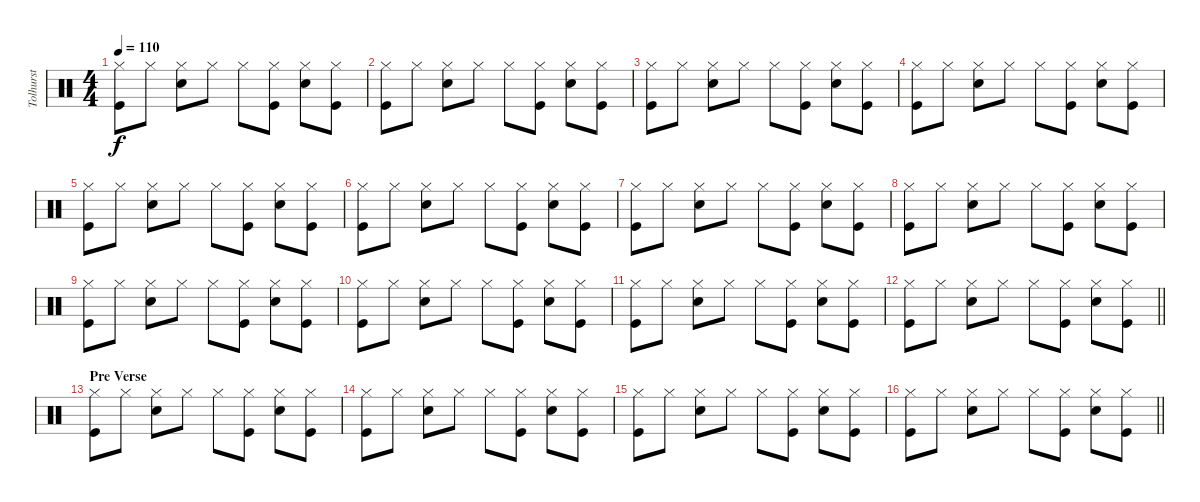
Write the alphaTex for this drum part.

\track ("Tolhurst" "Tolhurst") {instrument percussion}
\staff {score}
\articulation defaults
\ts (4 4)
\tempo 110
\clef neutral
\ks c
("Hi-Hat (closed)" "Kick (hit)").8{dy f} "Hi-Hat (closed)".8 ("Hi-Hat (closed)" "Electric Snare (hit)").8 "Hi-Hat (closed)".8 "Hi-Hat (closed)".8 ("Hi-Hat (closed)" "Kick (hit)").8 ("Hi-Hat (closed)" "Electric Snare (hit)").8 ("Hi-Hat (closed)" "Kick (hit)").8 |
("Hi-Hat (closed)" "Kick (hit)").8 "Hi-Hat (closed)".8 ("Hi-Hat (closed)" "Electric Snare (hit)").8 "Hi-Hat (closed)".8 "Hi-Hat (closed)".8 ("Hi-Hat (closed)" "Kick (hit)").8 ("Hi-Hat (closed)" "Electric Snare (hit)").8 ("Hi-Hat (closed)" "Kick (hit)").8 |
("Hi-Hat (closed)" "Kick (hit)").8 "Hi-Hat (closed)".8 ("Hi-Hat (closed)" "Electric Snare (hit)").8 "Hi-Hat (closed)".8 "Hi-Hat (closed)".8 ("Hi-Hat (closed)" "Kick (hit)").8 ("Hi-Hat (closed)" "Electric Snare (hit)").8 ("Hi-Hat (closed)" "Kick (hit)").8 |
("Hi-Hat (closed)" "Kick (hit)").8 "Hi-Hat (closed)".8 ("Hi-Hat (closed)" "Electric Snare (hit)").8 "Hi-Hat (closed)".8 "Hi-Hat (closed)".8 ("Hi-Hat (closed)" "Kick (hit)").8 ("Hi-Hat (closed)" "Electric Snare (hit)").8 ("Hi-Hat (closed)" "Kick (hit)").8 |
("Hi-Hat (closed)" "Kick (hit)").8 "Hi-Hat (closed)".8 ("Hi-Hat (closed)" "Electric Snare (hit)").8 "Hi-Hat (closed)".8 "Hi-Hat (closed)".8 ("Hi-Hat (closed)" "Kick (hit)").8 ("Hi-Hat (closed)" "Electric Snare (hit)").8 ("Hi-Hat (closed)" "Kick (hit)").8 |
("Hi-Hat (closed)" "Kick (hit)").8 "Hi-Hat (closed)".8 ("Hi-Hat (closed)" "Electric Snare (hit)").8 "Hi-Hat (closed)".8 "Hi-Hat (closed)".8 ("Hi-Hat (closed)" "Kick (hit)").8 ("Hi-Hat (closed)" "Electric Snare (hit)").8 ("Hi-Hat (closed)" "Kick (hit)").8 |
("Hi-Hat (closed)" "Kick (hit)").8 "Hi-Hat (closed)".8 ("Hi-Hat (closed)" "Electric Snare (hit)").8 "Hi-Hat (closed)".8 "Hi-Hat (closed)".8 ("Hi-Hat (closed)" "Kick (hit)").8 ("Hi-Hat (closed)" "Electric Snare (hit)").8 ("Hi-Hat (closed)" "Kick (hit)").8 |
("Hi-Hat (closed)" "Kick (hit)").8 "Hi-Hat (closed)".8 ("Hi-Hat (closed)" "Electric Snare (hit)").8 "Hi-Hat (closed)".8 "Hi-Hat (closed)".8 ("Hi-Hat (closed)" "Kick (hit)").8 ("Hi-Hat (closed)" "Electric Snare (hit)").8 ("Hi-Hat (closed)" "Kick (hit)").8 |
("Hi-Hat (closed)" "Kick (hit)").8 "Hi-Hat (closed)".8 ("Hi-Hat (closed)" "Electric Snare (hit)").8 "Hi-Hat (closed)".8 "Hi-Hat (closed)".8 ("Hi-Hat (closed)" "Kick (hit)").8 ("Hi-Hat (closed)" "Electric Snare (hit)").8 ("Hi-Hat (closed)" "Kick (hit)").8 |
("Hi-Hat (closed)" "Kick (hit)").8 "Hi-Hat (closed)".8 ("Hi-Hat (closed)" "Electric Snare (hit)").8 "Hi-Hat (closed)".8 "Hi-Hat (closed)".8 ("Hi-Hat (closed)" "Kick (hit)").8 ("Hi-Hat (closed)" "Electric Snare (hit)").8 ("Hi-Hat (closed)" "Kick (hit)").8 |
("Hi-Hat (closed)" "Kick (hit)").8 "Hi-Hat (closed)".8 ("Hi-Hat (closed)" "Electric Snare (hit)").8 "Hi-Hat (closed)".8 "Hi-Hat (closed)".8 ("Hi-Hat (closed)" "Kick (hit)").8 ("Hi-Hat (closed)" "Electric Snare (hit)").8 ("Hi-Hat (closed)" "Kick (hit)").8 |
\barLineRight lightlight
("Hi-Hat (closed)" "Kick (hit)").8 "Hi-Hat (closed)".8 ("Hi-Hat (closed)" "Electric Snare (hit)").8 "Hi-Hat (closed)".8 "Hi-Hat (closed)".8 ("Hi-Hat (closed)" "Kick (hit)").8 ("Hi-Hat (closed)" "Electric Snare (hit)").8 ("Hi-Hat (closed)" "Kick (hit)").8 |
\section ("" "Pre Verse")
("Hi-Hat (closed)" "Kick (hit)").8 "Hi-Hat (closed)".8 ("Hi-Hat (closed)" "Electric Snare (hit)").8 "Hi-Hat (closed)".8 "Hi-Hat (closed)".8 ("Hi-Hat (closed)" "Kick (hit)").8 ("Hi-Hat (closed)" "Electric Snare (hit)").8 ("Hi-Hat (closed)" "Kick (hit)").8 |
("Hi-Hat (closed)" "Kick (hit)").8 "Hi-Hat (closed)".8 ("Hi-Hat (closed)" "Electric Snare (hit)").8 "Hi-Hat (closed)".8 "Hi-Hat (closed)".8 ("Hi-Hat (closed)" "Kick (hit)").8 ("Hi-Hat (closed)" "Electric Snare (hit)").8 ("Hi-Hat (closed)" "Kick (hit)").8 |
("Hi-Hat (closed)" "Kick (hit)").8 "Hi-Hat (closed)".8 ("Hi-Hat (closed)" "Electric Snare (hit)").8 "Hi-Hat (closed)".8 "Hi-Hat (closed)".8 ("Hi-Hat (closed)" "Kick (hit)").8 ("Hi-Hat (closed)" "Electric Snare (hit)").8 ("Hi-Hat (closed)" "Kick (hit)").8 |
\barLineRight lightlight
("Hi-Hat (closed)" "Kick (hit)").8 "Hi-Hat (closed)".8 ("Hi-Hat (closed)" "Electric Snare (hit)").8 "Hi-Hat (closed)".8 "Hi-Hat (closed)".8 ("Hi-Hat (closed)" "Kick (hit)").8 ("Hi-Hat (closed)" "Electric Snare (hit)").8 ("Hi-Hat (closed)" "Kick (hit)").8
